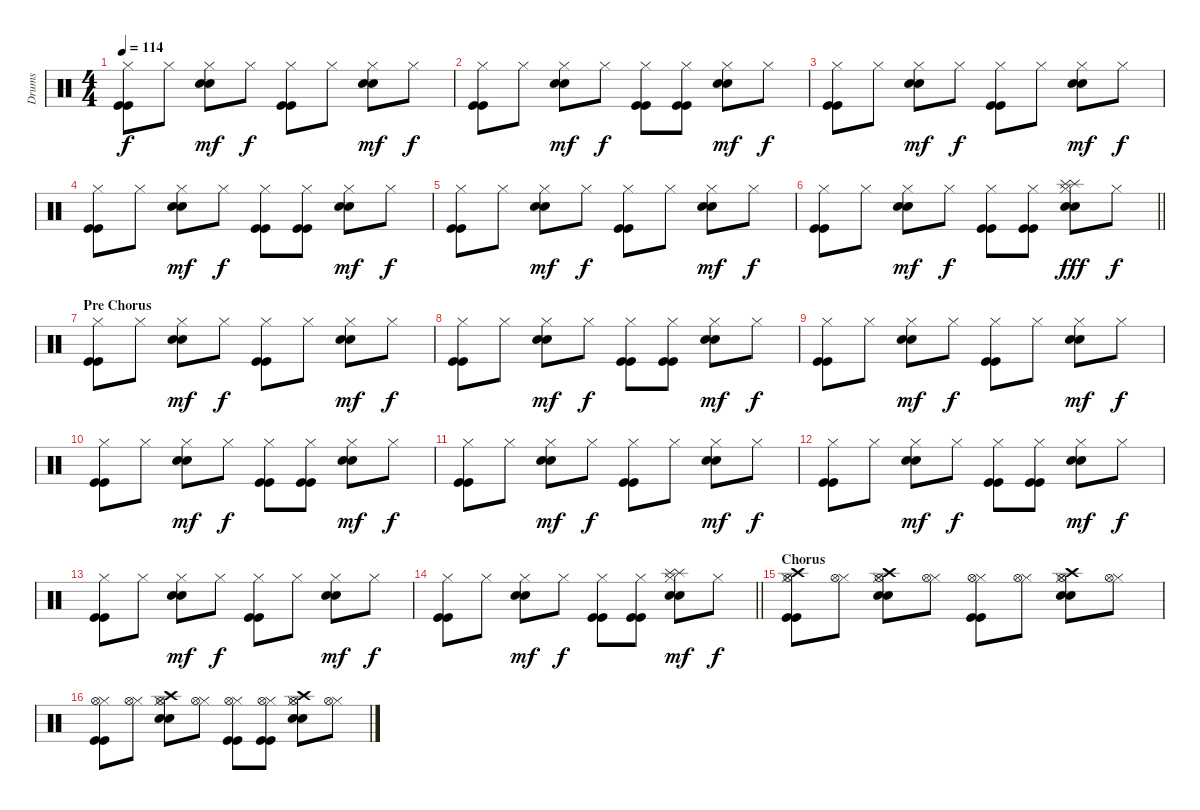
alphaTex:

\track ("Drums" "Drums") {instrument percussion}
\staff {score}
\articulation defaults
\ts (4 4)
\tempo 114
\clef neutral
\ks c
("Kick (hit)" "Kick (hit)" "Hi-Hat (closed)").8{dy f} "Hi-Hat (closed)".8 ("Snare (hit) 2" "Snare (hit) 2" "Hi-Hat (closed)").8{dy mf} "Hi-Hat (closed)".8{dy f} ("Kick (hit)" "Kick (hit)" "Hi-Hat (closed)").8 "Hi-Hat (closed)".8 ("Snare (hit) 2" "Snare (hit) 2" "Hi-Hat (closed)").8{dy mf} "Hi-Hat (closed)".8{dy f} |
("Kick (hit)" "Kick (hit)" "Hi-Hat (closed)").8 "Hi-Hat (closed)".8 ("Snare (hit) 2" "Snare (hit) 2" "Hi-Hat (closed)").8{dy mf} "Hi-Hat (closed)".8{dy f} ("Kick (hit)" "Kick (hit)" "Hi-Hat (closed)").8 ("Kick (hit)" "Kick (hit)" "Hi-Hat (closed)").8 ("Snare (hit) 2" "Snare (hit) 2" "Hi-Hat (closed)").8{dy mf} "Hi-Hat (closed)".8{dy f} |
("Kick (hit)" "Kick (hit)" "Hi-Hat (closed)").8 "Hi-Hat (closed)".8 ("Snare (hit) 2" "Snare (hit) 2" "Hi-Hat (closed)").8{dy mf} "Hi-Hat (closed)".8{dy f} ("Kick (hit)" "Kick (hit)" "Hi-Hat (closed)").8 "Hi-Hat (closed)".8 ("Snare (hit) 2" "Snare (hit) 2" "Hi-Hat (closed)").8{dy mf} "Hi-Hat (closed)".8{dy f} |
("Kick (hit)" "Kick (hit)" "Hi-Hat (closed)").8 "Hi-Hat (closed)".8 ("Snare (hit) 2" "Snare (hit) 2" "Hi-Hat (closed)").8{dy mf} "Hi-Hat (closed)".8{dy f} ("Kick (hit)" "Kick (hit)" "Hi-Hat (closed)").8 ("Kick (hit)" "Kick (hit)" "Hi-Hat (closed)").8 ("Snare (hit) 2" "Snare (hit) 2" "Hi-Hat (closed)").8{dy mf} "Hi-Hat (closed)".8{dy f} |
("Kick (hit)" "Kick (hit)" "Hi-Hat (closed)").8 "Hi-Hat (closed)".8 ("Snare (hit) 2" "Snare (hit) 2" "Hi-Hat (closed)").8{dy mf} "Hi-Hat (closed)".8{dy f} ("Kick (hit)" "Kick (hit)" "Hi-Hat (closed)").8 "Hi-Hat (closed)".8 ("Snare (hit) 2" "Snare (hit) 2" "Hi-Hat (closed)").8{dy mf} "Hi-Hat (closed)".8{dy f} |
\barLineRight lightlight
("Kick (hit)" "Kick (hit)" "Hi-Hat (closed)").8 "Hi-Hat (closed)".8 ("Snare (hit) 2" "Snare (hit) 2" "Hi-Hat (closed)").8{dy mf} "Hi-Hat (closed)".8{dy f} ("Kick (hit)" "Kick (hit)" "Hi-Hat (closed)").8 ("Kick (hit)" "Kick (hit)" "Hi-Hat (closed)").8 ("Snare (hit) 2" "Snare (hit) 2" "Hi-Hat (closed)" "Splash (hit)" "Splash (hit)").8{dy fff} "Hi-Hat (closed)".8{dy f} |
\section ("" "Pre Chorus")
("Kick (hit)" "Kick (hit)" "Hi-Hat (closed)").8 "Hi-Hat (closed)".8 ("Snare (hit) 2" "Snare (hit) 2" "Hi-Hat (closed)").8{dy mf} "Hi-Hat (closed)".8{dy f} ("Kick (hit)" "Kick (hit)" "Hi-Hat (closed)").8 "Hi-Hat (closed)".8 ("Snare (hit) 2" "Snare (hit) 2" "Hi-Hat (closed)").8{dy mf} "Hi-Hat (closed)".8{dy f} |
("Kick (hit)" "Kick (hit)" "Hi-Hat (closed)").8 "Hi-Hat (closed)".8 ("Snare (hit) 2" "Snare (hit) 2" "Hi-Hat (closed)").8{dy mf} "Hi-Hat (closed)".8{dy f} ("Kick (hit)" "Kick (hit)" "Hi-Hat (closed)").8 ("Kick (hit)" "Kick (hit)" "Hi-Hat (closed)").8 ("Snare (hit) 2" "Snare (hit) 2" "Hi-Hat (closed)").8{dy mf} "Hi-Hat (closed)".8{dy f} |
("Kick (hit)" "Kick (hit)" "Hi-Hat (closed)").8 "Hi-Hat (closed)".8 ("Snare (hit) 2" "Snare (hit) 2" "Hi-Hat (closed)").8{dy mf} "Hi-Hat (closed)".8{dy f} ("Kick (hit)" "Kick (hit)" "Hi-Hat (closed)").8 "Hi-Hat (closed)".8 ("Snare (hit) 2" "Snare (hit) 2" "Hi-Hat (closed)").8{dy mf} "Hi-Hat (closed)".8{dy f} |
("Kick (hit)" "Kick (hit)" "Hi-Hat (closed)").8 "Hi-Hat (closed)".8 ("Snare (hit) 2" "Snare (hit) 2" "Hi-Hat (closed)").8{dy mf} "Hi-Hat (closed)".8{dy f} ("Kick (hit)" "Kick (hit)" "Hi-Hat (closed)").8 ("Kick (hit)" "Kick (hit)" "Hi-Hat (closed)").8 ("Snare (hit) 2" "Snare (hit) 2" "Hi-Hat (closed)").8{dy mf} "Hi-Hat (closed)".8{dy f} |
("Kick (hit)" "Kick (hit)" "Hi-Hat (closed)").8 "Hi-Hat (closed)".8 ("Snare (hit) 2" "Snare (hit) 2" "Hi-Hat (closed)").8{dy mf} "Hi-Hat (closed)".8{dy f} ("Kick (hit)" "Kick (hit)" "Hi-Hat (closed)").8 "Hi-Hat (closed)".8 ("Snare (hit) 2" "Snare (hit) 2" "Hi-Hat (closed)").8{dy mf} "Hi-Hat (closed)".8{dy f} |
("Kick (hit)" "Kick (hit)" "Hi-Hat (closed)").8 "Hi-Hat (closed)".8 ("Snare (hit) 2" "Snare (hit) 2" "Hi-Hat (closed)").8{dy mf} "Hi-Hat (closed)".8{dy f} ("Kick (hit)" "Kick (hit)" "Hi-Hat (closed)").8 ("Kick (hit)" "Kick (hit)" "Hi-Hat (closed)").8 ("Snare (hit) 2" "Snare (hit) 2" "Hi-Hat (closed)").8{dy mf} "Hi-Hat (closed)".8{dy f} |
("Kick (hit)" "Kick (hit)" "Hi-Hat (closed)").8 "Hi-Hat (closed)".8 ("Snare (hit) 2" "Snare (hit) 2" "Hi-Hat (closed)").8{dy mf} "Hi-Hat (closed)".8{dy f} ("Kick (hit)" "Kick (hit)" "Hi-Hat (closed)").8 "Hi-Hat (closed)".8 ("Snare (hit) 2" "Snare (hit) 2" "Hi-Hat (closed)").8{dy mf} "Hi-Hat (closed)".8{dy f} |
\barLineRight lightlight
("Kick (hit)" "Kick (hit)" "Hi-Hat (closed)").8 "Hi-Hat (closed)".8 ("Snare (hit) 2" "Snare (hit) 2" "Hi-Hat (closed)").8{dy mf} "Hi-Hat (closed)".8{dy f} ("Kick (hit)" "Kick (hit)" "Hi-Hat (closed)").8 ("Kick (hit)" "Kick (hit)" "Hi-Hat (closed)").8 ("Snare (hit) 2" "Snare (hit) 2" "Hi-Hat (closed)" "Splash (hit)" "Splash (hit)").8{dy mf} "Hi-Hat (closed)".8{dy f} |
\section ("" "Chorus")
("Kick (hit)" "Kick (hit)" "Hi-Hat (closed)" "Hi-Hat (open)" "Crash high (hit)").8 ("Hi-Hat (closed)" "Hi-Hat (open)").8 ("Snare (hit) 2" "Snare (hit) 2" "Hi-Hat (closed)" "Hi-Hat (open)" "Crash high (hit)").8 ("Hi-Hat (closed)" "Hi-Hat (open)").8 ("Kick (hit)" "Kick (hit)" "Hi-Hat (closed)" "Hi-Hat (open)").8 ("Hi-Hat (closed)" "Hi-Hat (open)").8 ("Snare (hit) 2" "Snare (hit) 2" "Hi-Hat (closed)" "Hi-Hat (open)" "Crash high (hit)").8 ("Hi-Hat (closed)" "Hi-Hat (open)").8 |
("Kick (hit)" "Kick (hit)" "Hi-Hat (closed)" "Hi-Hat (open)").8 ("Hi-Hat (closed)" "Hi-Hat (open)").8 ("Snare (hit) 2" "Snare (hit) 2" "Hi-Hat (closed)" "Hi-Hat (open)" "Crash high (hit)").8 ("Hi-Hat (closed)" "Hi-Hat (open)").8 ("Kick (hit)" "Kick (hit)" "Hi-Hat (closed)" "Hi-Hat (open)").8 ("Kick (hit)" "Kick (hit)" "Hi-Hat (closed)" "Hi-Hat (open)").8 ("Snare (hit) 2" "Snare (hit) 2" "Hi-Hat (closed)" "Hi-Hat (open)" "Crash high (hit)").8 ("Hi-Hat (closed)" "Hi-Hat (open)").8
